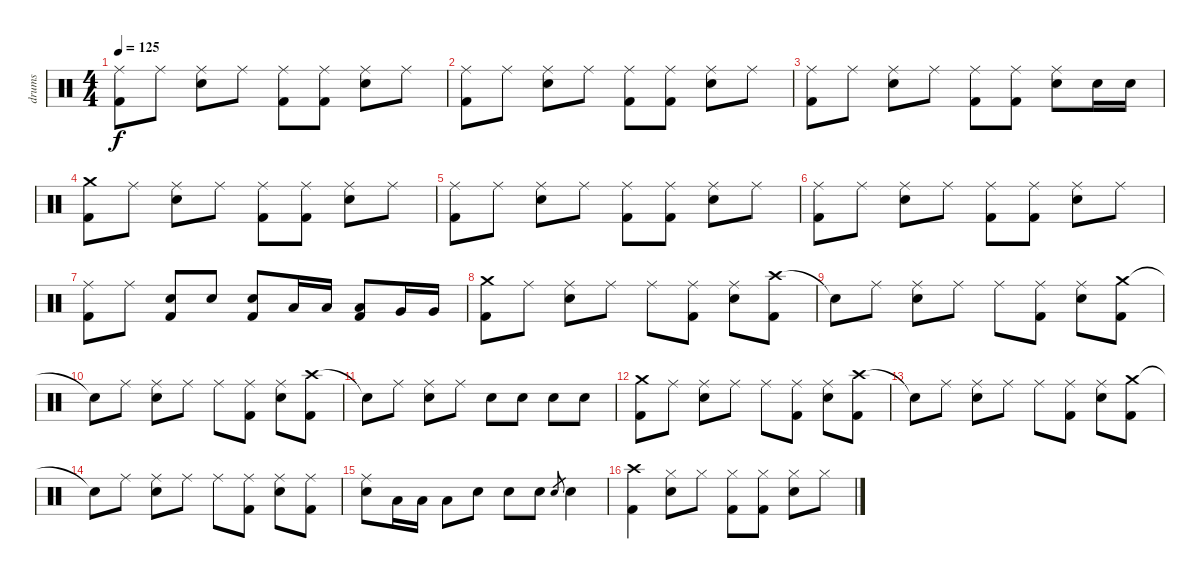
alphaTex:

\track ("drums" "drums") {instrument percussion}
\staff {score}
\articulation defaults
\ts (4 4)
\tempo 125
\clef neutral
\ks c
("Ride (middle)" "Kick (hit) 2").8{dy f} "Ride (middle)".8 ("Ride (middle)" "Electric Snare (hit)").8 "Ride (middle)".8 ("Ride (middle)" "Kick (hit) 2").8 ("Ride (middle)" "Kick (hit) 2").8 ("Ride (middle)" "Electric Snare (hit)").8 "Ride (middle)".8 |
("Ride (middle)" "Kick (hit) 2").8 "Ride (middle)".8 ("Ride (middle)" "Electric Snare (hit)").8 "Ride (middle)".8 ("Ride (middle)" "Kick (hit) 2").8 ("Ride (middle)" "Kick (hit) 2").8 ("Ride (middle)" "Electric Snare (hit)").8 "Ride (middle)".8 |
("Ride (middle)" "Kick (hit) 2").8 "Ride (middle)".8 ("Ride (middle)" "Electric Snare (hit)").8 "Ride (middle)".8 ("Ride (middle)" "Kick (hit) 2").8 ("Ride (middle)" "Kick (hit) 2").8 ("Ride (middle)" "Electric Snare (hit)").8 "Electric Snare (hit)".16 "Electric Snare (hit)".16 |
("Crash medium (hit)" "Kick (hit) 2").8 "Ride (middle)".8 ("Ride (middle)" "Electric Snare (hit)").8 "Ride (middle)".8 ("Ride (middle)" "Kick (hit) 2").8 ("Ride (middle)" "Kick (hit) 2").8 ("Ride (middle)" "Electric Snare (hit)").8 "Ride (middle)".8 |
("Ride (middle)" "Kick (hit) 2").8 "Ride (middle)".8 ("Ride (middle)" "Electric Snare (hit)").8 "Ride (middle)".8 ("Ride (middle)" "Kick (hit) 2").8 ("Ride (middle)" "Kick (hit) 2").8 ("Ride (middle)" "Electric Snare (hit)").8 "Ride (middle)".8 |
("Ride (middle)" "Kick (hit) 2").8 "Ride (middle)".8 ("Ride (middle)" "Electric Snare (hit)").8 "Ride (middle)".8 ("Ride (middle)" "Kick (hit) 2").8 ("Ride (middle)" "Kick (hit) 2").8 ("Ride (middle)" "Electric Snare (hit)").8 "Ride (middle)".8 |
("Ride (middle)" "Kick (hit) 2").8 "Ride (middle)".8 ("Electric Snare (hit)" "Kick (hit) 2").8 "Electric Snare (hit)".8 ("Electric Snare (hit)" "Kick (hit) 2").8 "Low Tom (hit)".16 "Low Tom (hit)".16 ("Low Tom (hit)" "Kick (hit) 2").8 "Very Low Tom (hit)".16 "Very Low Tom (hit)".16 |
("Crash medium (hit)" "Kick (hit) 2").8 "Ride (middle)".8 ("Ride (middle)" "Electric Snare (hit)").8 "Ride (middle)".8 "Ride (middle)".8 ("Ride (middle)" "Kick (hit) 2").8 ("Ride (middle)" "Electric Snare (hit)").8 ("Crash high (hit)" "Kick (hit) 2").8 |
"Snare (hit)"{t}.8 "Ride (middle)".8 ("Ride (middle)" "Electric Snare (hit)").8 "Ride (middle)".8 "Ride (middle)".8 ("Ride (middle)" "Kick (hit) 2").8 ("Ride (middle)" "Electric Snare (hit)").8 ("Crash medium (hit)" "Kick (hit) 2").8 |
"Snare (hit)"{t}.8 "Ride (middle)".8 ("Ride (middle)" "Electric Snare (hit)").8 "Ride (middle)".8 "Ride (middle)".8 ("Ride (middle)" "Kick (hit) 2").8 ("Ride (middle)" "Electric Snare (hit)").8 ("Crash high (hit)" "Kick (hit) 2").8 |
"Snare (hit)"{t}.8 "Ride (middle)".8 ("Ride (middle)" "Electric Snare (hit)").8 "Ride (middle)".8 "Electric Snare (hit)".8 "Electric Snare (hit)".8 "Electric Snare (hit)".8 "Electric Snare (hit)".8 |
("Crash medium (hit)" "Kick (hit) 2").8 "Ride (middle)".8 ("Ride (middle)" "Electric Snare (hit)").8 "Ride (middle)".8 "Ride (middle)".8 ("Ride (middle)" "Kick (hit) 2").8 ("Ride (middle)" "Electric Snare (hit)").8 ("Crash high (hit)" "Kick (hit) 2").8 |
"Snare (hit)"{t}.8 "Ride (middle)".8 ("Ride (middle)" "Electric Snare (hit)").8 "Ride (middle)".8 "Ride (middle)".8 ("Ride (middle)" "Kick (hit) 2").8 ("Ride (middle)" "Electric Snare (hit)").8 ("Crash medium (hit)" "Kick (hit) 2").8 |
"Snare (hit)"{t}.8 "Ride (middle)".8 ("Ride (middle)" "Electric Snare (hit)").8 "Ride (middle)".8 "Ride (middle)".8 ("Ride (middle)" "Kick (hit) 2").8 ("Ride (middle)" "Electric Snare (hit)").8 ("Ride (middle)" "Kick (hit) 2").8 |
("Ride (middle)" "Electric Snare (hit)").8 "Low Tom (hit)".16 "Low Tom (hit)".16 "Low Tom (hit)".8 "Electric Snare (hit)".8 "Electric Snare (hit)".8 "Electric Snare (hit)".8 "Electric Snare (hit)".8{gr} "Electric Snare (hit)".4 |
("Crash high (hit)" "Kick (hit) 2").4 ("Hi-Hat (closed)" "Electric Snare (hit)").8 "Hi-Hat (closed)".8 ("Hi-Hat (closed)" "Kick (hit) 2").8 ("Hi-Hat (closed)" "Kick (hit) 2").8 ("Hi-Hat (closed)" "Electric Snare (hit)").8 "Hi-Hat (closed)".8
